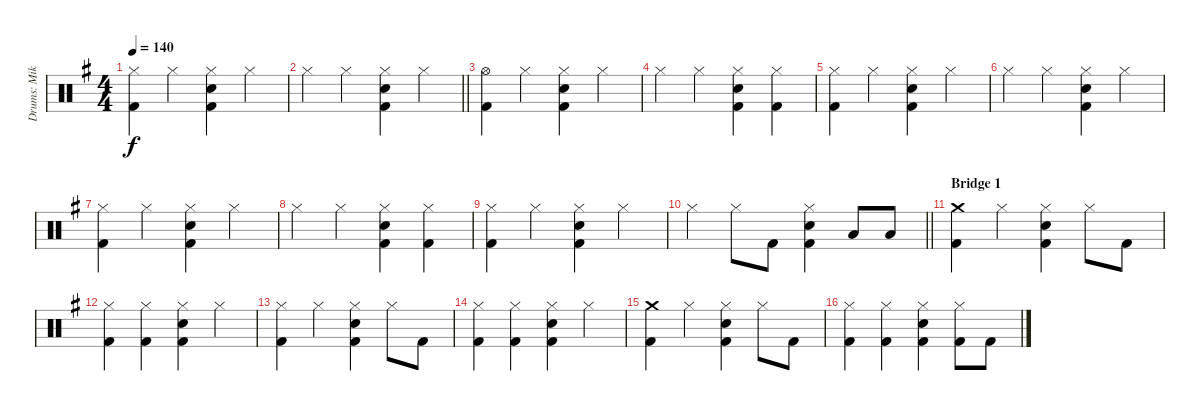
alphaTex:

\track ("Drums: Mike Terrana" "Drums: Mik") {instrument percussion}
\staff {score}
\articulation defaults
\ts (4 4)
\tempo 140
\clef neutral
\ks eminor
("Hi-Hat (closed)" "Kick (hit) 2").4{dy f} "Hi-Hat (closed)".4 ("Hi-Hat (closed)" "Electric Snare (hit)" "Kick (hit) 2").4 "Hi-Hat (closed)".4 |
\barLineRight lightlight "Hi-Hat (closed)".4 "Hi-Hat (closed)".4
("Hi-Hat (closed)" "Electric Snare (hit)" "Kick (hit) 2").4 "Hi-Hat (closed)".4 |
("Hi-Hat (open)" "Kick (hit) 2").4 "Hi-Hat (closed)".4 ("Hi-Hat (closed)" "Electric Snare (hit)" "Kick (hit) 2").4 "Hi-Hat (closed)".4 |
"Hi-Hat (closed)".4 "Hi-Hat (closed)".4 ("Hi-Hat (closed)" "Electric Snare (hit)" "Kick (hit) 2").4 ("Hi-Hat (closed)" "Kick (hit) 2").4 |
("Hi-Hat (closed)" "Kick (hit) 2").4 "Hi-Hat (closed)".4 ("Hi-Hat (closed)" "Electric Snare (hit)" "Kick (hit) 2").4 "Hi-Hat (closed)".4 |
"Hi-Hat (closed)".4 "Hi-Hat (closed)".4 ("Hi-Hat (closed)" "Electric Snare (hit)" "Kick (hit) 2").4 "Hi-Hat (closed)".4 |
("Hi-Hat (closed)" "Kick (hit) 2").4 "Hi-Hat (closed)".4 ("Hi-Hat (closed)" "Electric Snare (hit)" "Kick (hit) 2").4 "Hi-Hat (closed)".4 |
"Hi-Hat (closed)".4 "Hi-Hat (closed)".4 ("Hi-Hat (closed)" "Electric Snare (hit)" "Kick (hit) 2").4 ("Hi-Hat (closed)" "Kick (hit) 2").4 |
("Hi-Hat (closed)" "Kick (hit) 2").4 "Hi-Hat (closed)".4 ("Hi-Hat (closed)" "Electric Snare (hit)" "Kick (hit) 2").4 "Hi-Hat (closed)".4 |
\barLineRight lightlight "Hi-Hat (closed)".4 "Hi-Hat (closed)".8 "Kick (hit) 2".8
("Hi-Hat (closed)" "Electric Snare (hit)" "Kick (hit) 2").4 "Low Tom (hit)".8 "Low Tom (hit)".8 |
\section ("" "Bridge 1")
("Crash medium (hit)" "Kick (hit) 2").4 "Hi-Hat (closed)".4 ("Hi-Hat (closed)" "Electric Snare (hit)" "Kick (hit) 2").4 "Hi-Hat (closed)".8 "Kick (hit) 2".8 |
("Hi-Hat (closed)" "Kick (hit) 2").4 ("Hi-Hat (closed)" "Kick (hit) 2").4 ("Hi-Hat (closed)" "Electric Snare (hit)" "Kick (hit) 2").4 "Hi-Hat (closed)".4 |
("Hi-Hat (closed)" "Kick (hit) 2").4 "Hi-Hat (closed)".4 ("Hi-Hat (closed)" "Electric Snare (hit)" "Kick (hit) 2").4 "Hi-Hat (closed)".8 "Kick (hit) 2".8 |
("Hi-Hat (closed)" "Kick (hit) 2").4 ("Hi-Hat (closed)" "Kick (hit) 2").4 ("Hi-Hat (closed)" "Electric Snare (hit)" "Kick (hit) 2").4 "Hi-Hat (closed)".4 |
("Crash medium (hit)" "Kick (hit) 2").4 "Hi-Hat (closed)".4 ("Hi-Hat (closed)" "Electric Snare (hit)" "Kick (hit) 2").4 "Hi-Hat (closed)".8 "Kick (hit) 2".8 |
("Hi-Hat (closed)" "Kick (hit) 2").4 ("Hi-Hat (closed)" "Kick (hit) 2").4 ("Hi-Hat (closed)" "Electric Snare (hit)" "Kick (hit) 2").4 ("Hi-Hat (closed)" "Kick (hit) 2").8 "Kick (hit) 2".8
